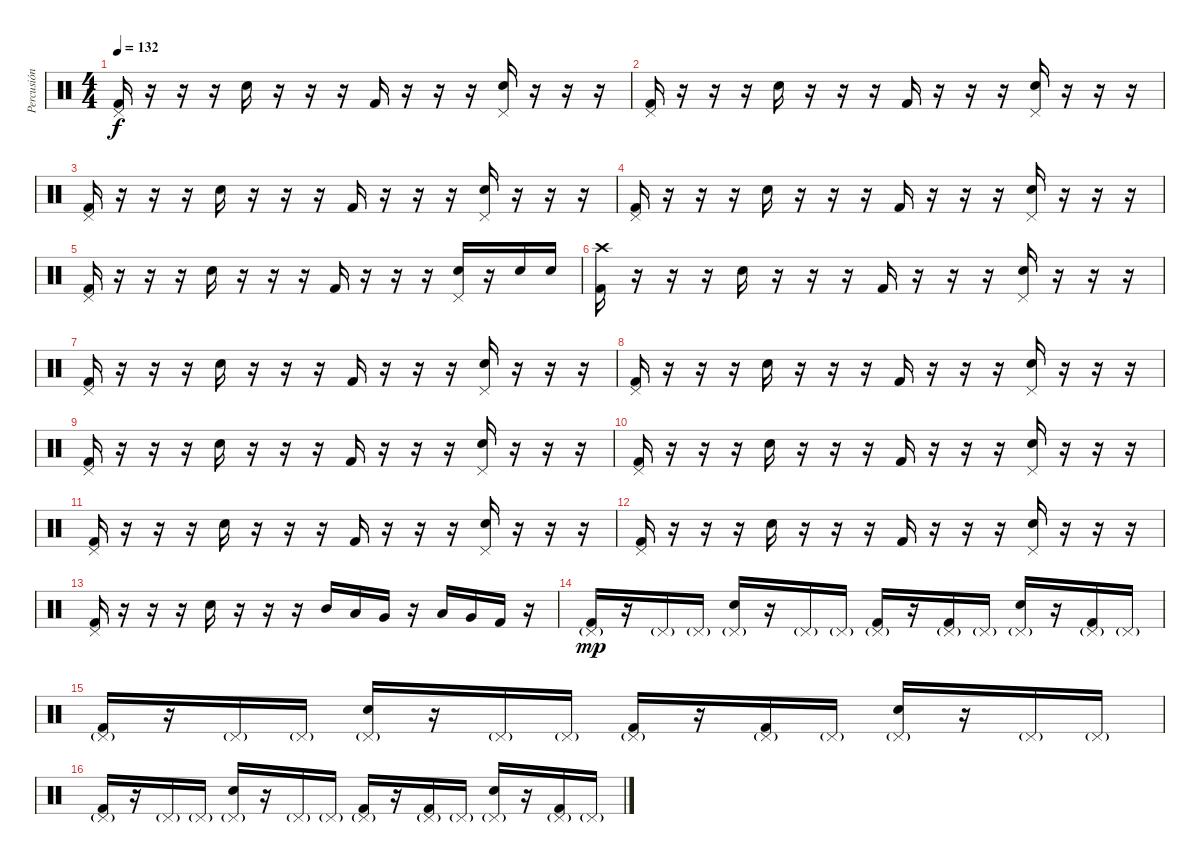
\track ("Percusión" "Percusión") {instrument percussion}
\staff {score}
\articulation defaults
\ts (4 4)
\tempo 132
\clef neutral
\ks c
("Pedal Hi-Hat (hit)" "Kick (hit) 2").16{dy f} r.16 r.16 r.16 "Electric Snare (hit)".16 r.16 r.16 r.16 "Kick (hit) 2".16 r.16 r.16 r.16 ("Pedal Hi-Hat (hit)" "Electric Snare (hit)").16 r.16 r.16 r.16 |
("Pedal Hi-Hat (hit)" "Kick (hit) 2").16 r.16 r.16 r.16 "Electric Snare (hit)".16 r.16 r.16 r.16 "Kick (hit) 2".16 r.16 r.16 r.16 ("Pedal Hi-Hat (hit)" "Electric Snare (hit)").16 r.16 r.16 r.16 |
("Pedal Hi-Hat (hit)" "Kick (hit) 2").16 r.16 r.16 r.16 "Electric Snare (hit)".16 r.16 r.16 r.16 "Kick (hit) 2".16 r.16 r.16 r.16 ("Pedal Hi-Hat (hit)" "Electric Snare (hit)").16 r.16 r.16 r.16 |
("Pedal Hi-Hat (hit)" "Kick (hit) 2").16 r.16 r.16 r.16 "Electric Snare (hit)".16 r.16 r.16 r.16 "Kick (hit) 2".16 r.16 r.16 r.16 ("Pedal Hi-Hat (hit)" "Electric Snare (hit)").16 r.16 r.16 r.16 |
("Pedal Hi-Hat (hit)" "Kick (hit) 2").16 r.16 r.16 r.16 "Electric Snare (hit)".16 r.16 r.16 r.16 "Kick (hit) 2".16 r.16 r.16 r.16 ("Pedal Hi-Hat (hit)" "Electric Snare (hit)").16 r.16 "Electric Snare (hit)".16 "Electric Snare (hit)".16 |
("Kick (hit) 2" "Crash high (hit)").16 r.16 r.16 r.16 "Electric Snare (hit)".16 r.16 r.16 r.16 "Kick (hit) 2".16 r.16 r.16 r.16 ("Pedal Hi-Hat (hit)" "Electric Snare (hit)").16 r.16 r.16 r.16 |
("Pedal Hi-Hat (hit)" "Kick (hit) 2").16 r.16 r.16 r.16 "Electric Snare (hit)".16 r.16 r.16 r.16 "Kick (hit) 2".16 r.16 r.16 r.16 ("Pedal Hi-Hat (hit)" "Electric Snare (hit)").16 r.16 r.16 r.16 |
("Pedal Hi-Hat (hit)" "Kick (hit) 2").16 r.16 r.16 r.16 "Electric Snare (hit)".16 r.16 r.16 r.16 "Kick (hit) 2".16 r.16 r.16 r.16 ("Pedal Hi-Hat (hit)" "Electric Snare (hit)").16 r.16 r.16 r.16 |
("Pedal Hi-Hat (hit)" "Kick (hit) 2").16 r.16 r.16 r.16 "Electric Snare (hit)".16 r.16 r.16 r.16 "Kick (hit) 2".16 r.16 r.16 r.16 ("Pedal Hi-Hat (hit)" "Electric Snare (hit)").16 r.16 r.16 r.16 |
("Pedal Hi-Hat (hit)" "Kick (hit) 2").16 r.16 r.16 r.16 "Electric Snare (hit)".16 r.16 r.16 r.16 "Kick (hit) 2".16 r.16 r.16 r.16 ("Pedal Hi-Hat (hit)" "Electric Snare (hit)").16 r.16 r.16 r.16 |
("Pedal Hi-Hat (hit)" "Kick (hit) 2").16 r.16 r.16 r.16 "Electric Snare (hit)".16 r.16 r.16 r.16 "Kick (hit) 2".16 r.16 r.16 r.16 ("Pedal Hi-Hat (hit)" "Electric Snare (hit)").16 r.16 r.16 r.16 |
("Pedal Hi-Hat (hit)" "Kick (hit) 2").16 r.16 r.16 r.16 "Electric Snare (hit)".16 r.16 r.16 r.16 "Kick (hit) 2".16 r.16 r.16 r.16 ("Pedal Hi-Hat (hit)" "Electric Snare (hit)").16 r.16 r.16 r.16 |
("Pedal Hi-Hat (hit)" "Kick (hit) 2").16 r.16 r.16 r.16 "Electric Snare (hit)".16 r.16 r.16 r.16 "Mid Tom (hit)".16 "Low Tom (hit)".16 "Very Low Tom (hit)".16 r.16 "Low Tom (hit)".16 "Very Low Tom (hit)".16 "Kick (hit) 2".16 r.16 |
("Pedal Hi-Hat (hit)"{g} "Kick (hit) 2").16{dy mp} r.16 "Pedal Hi-Hat (hit)"{g}.16 "Pedal Hi-Hat (hit)"{g}.16 ("Pedal Hi-Hat (hit)"{g} "Electric Snare (hit)").16 r.16 "Pedal Hi-Hat (hit)"{g}.16 "Pedal Hi-Hat (hit)"{g}.16 ("Pedal Hi-Hat (hit)"{g} "Kick (hit) 2").16 r.16 ("Pedal Hi-Hat (hit)"{g} "Kick (hit) 2").16 "Pedal Hi-Hat (hit)"{g}.16 ("Pedal Hi-Hat (hit)"{g} "Electric Snare (hit)").16 r.16 ("Pedal Hi-Hat (hit)"{g} "Kick (hit) 2").16 "Pedal Hi-Hat (hit)"{g}.16 |
("Pedal Hi-Hat (hit)"{g} "Kick (hit) 2").16 r.16 "Pedal Hi-Hat (hit)"{g}.16 "Pedal Hi-Hat (hit)"{g}.16 ("Pedal Hi-Hat (hit)"{g} "Electric Snare (hit)").16 r.16 "Pedal Hi-Hat (hit)"{g}.16 "Pedal Hi-Hat (hit)"{g}.16 ("Pedal Hi-Hat (hit)"{g} "Kick (hit) 2").16 r.16 ("Pedal Hi-Hat (hit)"{g} "Kick (hit) 2").16 "Pedal Hi-Hat (hit)"{g}.16 ("Pedal Hi-Hat (hit)"{g} "Electric Snare (hit)").16 r.16 "Pedal Hi-Hat (hit)"{g}.16 "Pedal Hi-Hat (hit)"{g}.16 |
("Pedal Hi-Hat (hit)"{g} "Kick (hit) 2").16 r.16 "Pedal Hi-Hat (hit)"{g}.16 "Pedal Hi-Hat (hit)"{g}.16 ("Pedal Hi-Hat (hit)"{g} "Electric Snare (hit)").16 r.16 "Pedal Hi-Hat (hit)"{g}.16 "Pedal Hi-Hat (hit)"{g}.16 ("Pedal Hi-Hat (hit)"{g} "Kick (hit) 2").16 r.16 ("Pedal Hi-Hat (hit)"{g} "Kick (hit) 2").16 "Pedal Hi-Hat (hit)"{g}.16 ("Pedal Hi-Hat (hit)"{g} "Electric Snare (hit)").16 r.16 ("Pedal Hi-Hat (hit)"{g} "Kick (hit) 2").16 "Pedal Hi-Hat (hit)"{g}.16
